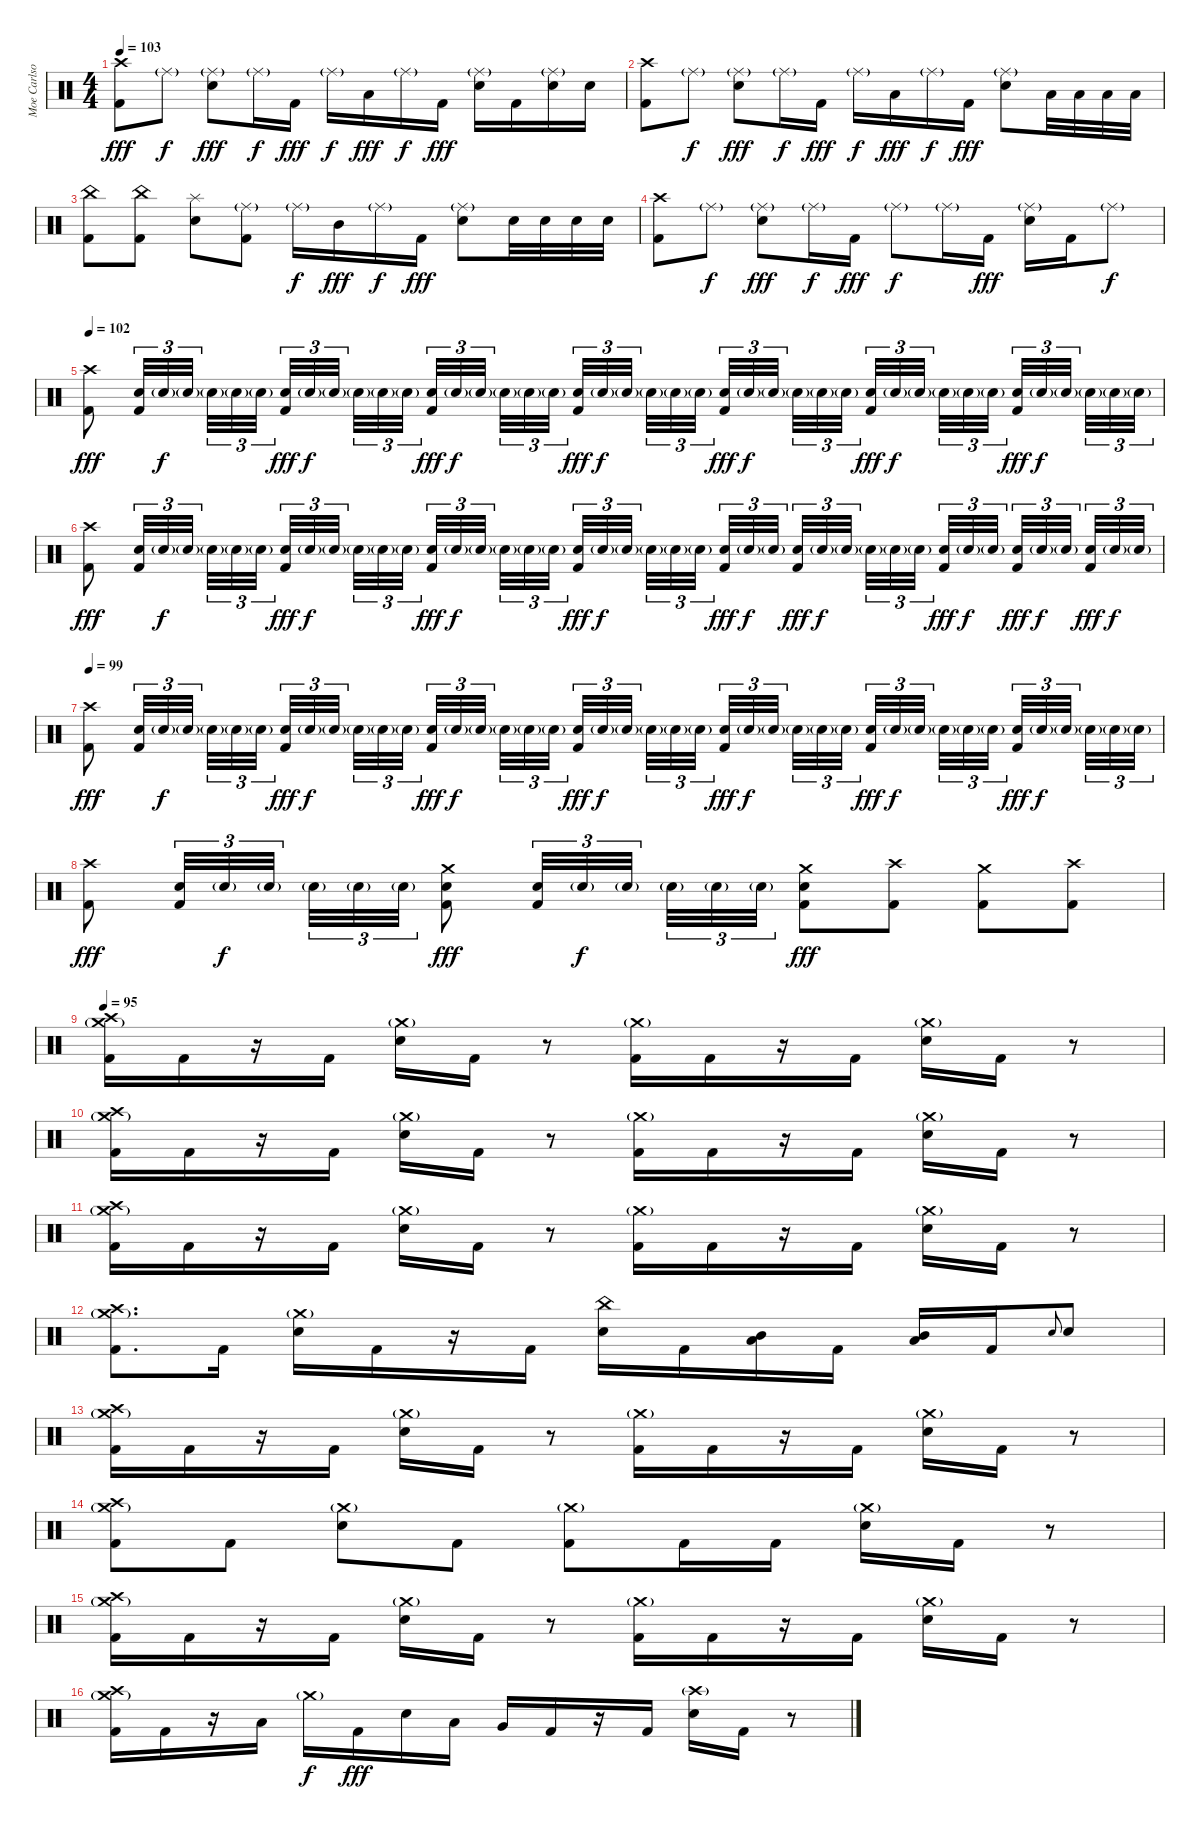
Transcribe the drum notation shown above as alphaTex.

\track ("Moe Carlson" "Moe Carlso") {instrument percussion}
\staff {score}
\articulation defaults
\ts (4 4)
\tempo 103
\clef neutral
\ks c
("Crash high (hit)" "Kick (hit) 2").8{dy fff} "Ride (middle)"{g}.8{dy f} ("Ride (middle)"{g} "Electric Snare (hit)").8{dy fff} "Ride (middle)"{g}.16{dy f} "Kick (hit) 2".16{dy fff} "Ride (middle)"{g}.16{dy f} "Low Tom (hit)".16{dy fff} "Ride (middle)"{g}.16{dy f} "Kick (hit) 2".16{dy fff} ("Ride (middle)"{g} "Electric Snare (hit)").16 "Kick (hit) 2".16 ("Ride (middle)"{g} "Electric Snare (hit)").16 "Electric Snare (hit)".16 |
("Crash high (hit)" "Kick (hit) 2").8 "Ride (middle)"{g}.8{dy f} ("Ride (middle)"{g} "Electric Snare (hit)").8{dy fff} "Ride (middle)"{g}.16{dy f} "Kick (hit) 2".16{dy fff} "Ride (middle)"{g}.16{dy f} "Low Tom (hit)".16{dy fff} "Ride (middle)"{g}.16{dy f} "Kick (hit) 2".16{dy fff} ("Ride (middle)"{g} "Electric Snare (hit)").8 "Low Floor Tom (hit)".32 "Low Floor Tom (hit)".32 "Low Floor Tom (hit)".32 "Low Floor Tom (hit)".32 |
("China (hit)" "Kick (hit) 2").8 ("China (hit)" "Kick (hit) 2").8 ("Splash (hit)" "Electric Snare (hit)").8 ("Ride (middle)"{g} "Kick (hit) 2").8 "Ride (middle)"{g}.16{dy f} "Mid Tom (hit)".16{dy fff} "Ride (middle)"{g}.16{dy f} "Kick (hit) 2".16{dy fff} ("Ride (middle)"{g} "Electric Snare (hit)").8 "Electric Snare (hit)".32 "Electric Snare (hit)".32 "Electric Snare (hit)".32 "Electric Snare (hit)".32 |
("Crash high (hit)" "Kick (hit) 2").8 "Ride (middle)"{g}.8{dy f} ("Ride (middle)"{g} "Electric Snare (hit)").8{dy fff} "Ride (middle)"{g}.16{dy f} "Kick (hit) 2".16{dy fff} "Ride (middle)"{g}.8{dy f} "Ride (middle)"{g}.16 "Kick (hit) 2".16{dy fff} ("Ride (middle)"{g} "Electric Snare (hit)").16 "Kick (hit) 2".16 "Ride (middle)"{g}.8{dy f} |
\tempo 102
("Crash high (hit)" "Kick (hit) 2").8{dy fff} ("Electric Snare (hit)" "Kick (hit) 2").32{tu (3 2)} "Electric Snare (hit)"{g}.32{tu (3 2) dy f} "Electric Snare (hit)"{g}.32{tu (3 2) beam splitsecondary} "Electric Snare (hit)"{g}.32{tu (3 2)} "Electric Snare (hit)"{g}.32{tu (3 2)} "Electric Snare (hit)"{g}.32{tu (3 2)} ("Electric Snare (hit)" "Kick (hit) 2").32{tu (3 2) dy fff} "Electric Snare (hit)"{g}.32{tu (3 2) dy f} "Electric Snare (hit)"{g}.32{tu (3 2) beam splitsecondary} "Electric Snare (hit)"{g}.32{tu (3 2)} "Electric Snare (hit)"{g}.32{tu (3 2)} "Electric Snare (hit)"{g}.32{tu (3 2) beam splitsecondary} ("Electric Snare (hit)" "Kick (hit) 2").32{tu (3 2) dy fff} "Electric Snare (hit)"{g}.32{tu (3 2) dy f} "Electric Snare (hit)"{g}.32{tu (3 2) beam splitsecondary} "Electric Snare (hit)"{g}.32{tu (3 2)} "Electric Snare (hit)"{g}.32{tu (3 2)} "Electric Snare (hit)"{g}.32{tu (3 2)} ("Electric Snare (hit)" "Kick (hit) 2").32{tu (3 2) dy fff} "Electric Snare (hit)"{g}.32{tu (3 2) dy f} "Electric Snare (hit)"{g}.32{tu (3 2) beam splitsecondary} "Electric Snare (hit)"{g}.32{tu (3 2)} "Electric Snare (hit)"{g}.32{tu (3 2)} "Electric Snare (hit)"{g}.32{tu (3 2) beam splitsecondary} ("Electric Snare (hit)" "Kick (hit) 2").32{tu (3 2) dy fff} "Electric Snare (hit)"{g}.32{tu (3 2) dy f} "Electric Snare (hit)"{g}.32{tu (3 2) beam splitsecondary} "Electric Snare (hit)"{g}.32{tu (3 2)} "Electric Snare (hit)"{g}.32{tu (3 2)} "Electric Snare (hit)"{g}.32{tu (3 2)} ("Electric Snare (hit)" "Kick (hit) 2").32{tu (3 2) dy fff} "Electric Snare (hit)"{g}.32{tu (3 2) dy f} "Electric Snare (hit)"{g}.32{tu (3 2) beam splitsecondary} "Electric Snare (hit)"{g}.32{tu (3 2)} "Electric Snare (hit)"{g}.32{tu (3 2)} "Electric Snare (hit)"{g}.32{tu (3 2) beam splitsecondary} ("Electric Snare (hit)" "Kick (hit) 2").32{tu (3 2) dy fff} "Electric Snare (hit)"{g}.32{tu (3 2) dy f} "Electric Snare (hit)"{g}.32{tu (3 2) beam splitsecondary} "Electric Snare (hit)"{g}.32{tu (3 2)} "Electric Snare (hit)"{g}.32{tu (3 2)} "Electric Snare (hit)"{g}.32{tu (3 2)} |
("Crash high (hit)" "Kick (hit) 2").8{dy fff} ("Electric Snare (hit)" "Kick (hit) 2").32{tu (3 2)} "Electric Snare (hit)"{g}.32{tu (3 2) dy f} "Electric Snare (hit)"{g}.32{tu (3 2) beam splitsecondary} "Electric Snare (hit)"{g}.32{tu (3 2)} "Electric Snare (hit)"{g}.32{tu (3 2)} "Electric Snare (hit)"{g}.32{tu (3 2)} ("Electric Snare (hit)" "Kick (hit) 2").32{tu (3 2) dy fff} "Electric Snare (hit)"{g}.32{tu (3 2) dy f} "Electric Snare (hit)"{g}.32{tu (3 2) beam splitsecondary} "Electric Snare (hit)"{g}.32{tu (3 2)} "Electric Snare (hit)"{g}.32{tu (3 2)} "Electric Snare (hit)"{g}.32{tu (3 2) beam splitsecondary} ("Electric Snare (hit)" "Kick (hit) 2").32{tu (3 2) dy fff} "Electric Snare (hit)"{g}.32{tu (3 2) dy f} "Electric Snare (hit)"{g}.32{tu (3 2) beam splitsecondary} "Electric Snare (hit)"{g}.32{tu (3 2)} "Electric Snare (hit)"{g}.32{tu (3 2)} "Electric Snare (hit)"{g}.32{tu (3 2)} ("Electric Snare (hit)" "Kick (hit) 2").32{tu (3 2) dy fff} "Electric Snare (hit)"{g}.32{tu (3 2) dy f} "Electric Snare (hit)"{g}.32{tu (3 2) beam splitsecondary} "Electric Snare (hit)"{g}.32{tu (3 2)} "Electric Snare (hit)"{g}.32{tu (3 2)} "Electric Snare (hit)"{g}.32{tu (3 2) beam splitsecondary} ("Electric Snare (hit)" "Kick (hit) 2").32{tu (3 2) dy fff} "Electric Snare (hit)"{g}.32{tu (3 2) dy f} "Electric Snare (hit)"{g}.32{tu (3 2) beam splitsecondary} ("Electric Snare (hit)" "Kick (hit) 2").32{tu (3 2) dy fff} "Electric Snare (hit)"{g}.32{tu (3 2) dy f} "Electric Snare (hit)"{g}.32{tu (3 2)} "Electric Snare (hit)"{g}.32{tu (3 2)} "Electric Snare (hit)"{g}.32{tu (3 2)} "Electric Snare (hit)"{g}.32{tu (3 2) beam splitsecondary} ("Electric Snare (hit)" "Kick (hit) 2").32{tu (3 2) dy fff} "Electric Snare (hit)"{g}.32{tu (3 2) dy f} "Electric Snare (hit)"{g}.32{tu (3 2) beam splitsecondary} ("Electric Snare (hit)" "Kick (hit) 2").32{tu (3 2) dy fff} "Electric Snare (hit)"{g}.32{tu (3 2) dy f} "Electric Snare (hit)"{g}.32{tu (3 2) beam splitsecondary} ("Electric Snare (hit)" "Kick (hit) 2").32{tu (3 2) dy fff} "Electric Snare (hit)"{g}.32{tu (3 2) dy f} "Electric Snare (hit)"{g}.32{tu (3 2)} |
\tempo 99
("Crash high (hit)" "Kick (hit) 2").8{dy fff} ("Electric Snare (hit)" "Kick (hit) 2").32{tu (3 2)} "Electric Snare (hit)"{g}.32{tu (3 2) dy f} "Electric Snare (hit)"{g}.32{tu (3 2) beam splitsecondary} "Electric Snare (hit)"{g}.32{tu (3 2)} "Electric Snare (hit)"{g}.32{tu (3 2)} "Electric Snare (hit)"{g}.32{tu (3 2)} ("Electric Snare (hit)" "Kick (hit) 2").32{tu (3 2) dy fff} "Electric Snare (hit)"{g}.32{tu (3 2) dy f} "Electric Snare (hit)"{g}.32{tu (3 2) beam splitsecondary} "Electric Snare (hit)"{g}.32{tu (3 2)} "Electric Snare (hit)"{g}.32{tu (3 2)} "Electric Snare (hit)"{g}.32{tu (3 2) beam splitsecondary} ("Electric Snare (hit)" "Kick (hit) 2").32{tu (3 2) dy fff} "Electric Snare (hit)"{g}.32{tu (3 2) dy f} "Electric Snare (hit)"{g}.32{tu (3 2) beam splitsecondary} "Electric Snare (hit)"{g}.32{tu (3 2)} "Electric Snare (hit)"{g}.32{tu (3 2)} "Electric Snare (hit)"{g}.32{tu (3 2)} ("Electric Snare (hit)" "Kick (hit) 2").32{tu (3 2) dy fff} "Electric Snare (hit)"{g}.32{tu (3 2) dy f} "Electric Snare (hit)"{g}.32{tu (3 2) beam splitsecondary} "Electric Snare (hit)"{g}.32{tu (3 2)} "Electric Snare (hit)"{g}.32{tu (3 2)} "Electric Snare (hit)"{g}.32{tu (3 2) beam splitsecondary} ("Electric Snare (hit)" "Kick (hit) 2").32{tu (3 2) dy fff} "Electric Snare (hit)"{g}.32{tu (3 2) dy f} "Electric Snare (hit)"{g}.32{tu (3 2) beam splitsecondary} "Electric Snare (hit)"{g}.32{tu (3 2)} "Electric Snare (hit)"{g}.32{tu (3 2)} "Electric Snare (hit)"{g}.32{tu (3 2)} ("Electric Snare (hit)" "Kick (hit) 2").32{tu (3 2) dy fff} "Electric Snare (hit)"{g}.32{tu (3 2) dy f} "Electric Snare (hit)"{g}.32{tu (3 2) beam splitsecondary} "Electric Snare (hit)"{g}.32{tu (3 2)} "Electric Snare (hit)"{g}.32{tu (3 2)} "Electric Snare (hit)"{g}.32{tu (3 2) beam splitsecondary} ("Electric Snare (hit)" "Kick (hit) 2").32{tu (3 2) dy fff} "Electric Snare (hit)"{g}.32{tu (3 2) dy f} "Electric Snare (hit)"{g}.32{tu (3 2) beam splitsecondary} "Electric Snare (hit)"{g}.32{tu (3 2)} "Electric Snare (hit)"{g}.32{tu (3 2)} "Electric Snare (hit)"{g}.32{tu (3 2)} |
("Crash high (hit)" "Kick (hit) 2").8{dy fff} ("Electric Snare (hit)" "Kick (hit) 2").32{tu (3 2)} "Electric Snare (hit)"{g}.32{tu (3 2) dy f} "Electric Snare (hit)"{g}.32{tu (3 2) beam splitsecondary} "Electric Snare (hit)"{g}.32{tu (3 2)} "Electric Snare (hit)"{g}.32{tu (3 2)} "Electric Snare (hit)"{g}.32{tu (3 2)} ("Crash medium (hit)" "Electric Snare (hit)" "Kick (hit) 2").8{dy fff} ("Electric Snare (hit)" "Kick (hit) 2").32{tu (3 2)} "Electric Snare (hit)"{g}.32{tu (3 2) dy f} "Electric Snare (hit)"{g}.32{tu (3 2) beam splitsecondary} "Electric Snare (hit)"{g}.32{tu (3 2)} "Electric Snare (hit)"{g}.32{tu (3 2)} "Electric Snare (hit)"{g}.32{tu (3 2)} ("Crash medium (hit)" "Electric Snare (hit)" "Kick (hit) 2").8{dy fff} ("Crash high (hit)" "Kick (hit) 2").8 ("Crash medium (hit)" "Kick (hit) 2").8 ("Crash high (hit)" "Kick (hit) 2").8 |
\tempo 95
("Crash medium (hit)"{g} "Crash high (hit)" "Kick (hit) 2").16 "Kick (hit) 2".16 r.16 "Kick (hit) 2".16 ("Crash medium (hit)"{g} "Electric Snare (hit)").16 "Kick (hit) 2".16 r.8 ("Crash medium (hit)"{g} "Kick (hit) 2").16 "Kick (hit) 2".16 r.16 "Kick (hit) 2".16 ("Crash medium (hit)"{g} "Electric Snare (hit)").16 "Kick (hit) 2".16 r.8 |
("Crash medium (hit)"{g} "Crash high (hit)" "Kick (hit) 2").16 "Kick (hit) 2".16 r.16 "Kick (hit) 2".16 ("Crash medium (hit)"{g} "Electric Snare (hit)").16 "Kick (hit) 2".16 r.8 ("Crash medium (hit)"{g} "Kick (hit) 2").16 "Kick (hit) 2".16 r.16 "Kick (hit) 2".16 ("Crash medium (hit)"{g} "Electric Snare (hit)").16 "Kick (hit) 2".16 r.8 |
("Crash medium (hit)"{g} "Crash high (hit)" "Kick (hit) 2").16 "Kick (hit) 2".16 r.16 "Kick (hit) 2".16 ("Crash medium (hit)"{g} "Electric Snare (hit)").16 "Kick (hit) 2".16 r.8 ("Crash medium (hit)"{g} "Kick (hit) 2").16 "Kick (hit) 2".16 r.16 "Kick (hit) 2".16 ("Crash medium (hit)"{g} "Electric Snare (hit)").16 "Kick (hit) 2".16 r.8 |
("Crash medium (hit)"{g} "Crash high (hit)" "Kick (hit) 2").8{d} "Kick (hit) 2".16 ("Crash medium (hit)"{g} "Electric Snare (hit)").16 "Kick (hit) 2".16 r.16 "Kick (hit) 2".16 ("China (hit)" "Electric Snare (hit)").16 "Kick (hit) 2".16 ("Mid Tom (hit)" "Low Floor Tom (hit)").16 "Kick (hit) 2".16 ("Mid Tom (hit)" "Low Floor Tom (hit)").16 "Kick (hit) 2".16 "Electric Snare (hit)".8{gr onbeat} "Electric Snare (hit)".8 |
("Crash medium (hit)"{g} "Crash high (hit)" "Kick (hit) 2").16 "Kick (hit) 2".16 r.16 "Kick (hit) 2".16 ("Crash medium (hit)"{g} "Electric Snare (hit)").16 "Kick (hit) 2".16 r.8 ("Crash medium (hit)"{g} "Kick (hit) 2").16 "Kick (hit) 2".16 r.16 "Kick (hit) 2".16 ("Crash medium (hit)"{g} "Electric Snare (hit)").16 "Kick (hit) 2".16 r.8 |
("Crash medium (hit)"{g} "Crash high (hit)" "Kick (hit) 2").8 "Kick (hit) 2".8 ("Crash medium (hit)"{g} "Electric Snare (hit)").8 "Kick (hit) 2".8 ("Crash medium (hit)"{g} "Kick (hit) 2").8 "Kick (hit) 2".16 "Kick (hit) 2".16 ("Crash medium (hit)"{g} "Electric Snare (hit)").16 "Kick (hit) 2".16 r.8 |
("Crash medium (hit)"{g} "Crash high (hit)" "Kick (hit) 2").16 "Kick (hit) 2".16 r.16 "Kick (hit) 2".16 ("Crash medium (hit)"{g} "Electric Snare (hit)").16 "Kick (hit) 2".16 r.8 ("Crash medium (hit)"{g} "Kick (hit) 2").16 "Kick (hit) 2".16 r.16 "Kick (hit) 2".16 ("Crash medium (hit)"{g} "Electric Snare (hit)").16 "Kick (hit) 2".16 r.8 |
("Crash medium (hit)"{g} "Crash high (hit)" "Kick (hit) 2").16 "Kick (hit) 2".16 r.16 "Low Tom (hit)".16 "Crash medium (hit)"{g}.16{dy f} "Kick (hit) 2".16{dy fff} "Electric Snare (hit)".16 "Low Tom (hit)".16 "Very Low Tom (hit)".16 "Kick (hit) 2".16 r.16 "Kick (hit) 2".16 ("Crash high (hit)"{g} "Electric Snare (hit)").16 "Kick (hit) 2".16 r.8
